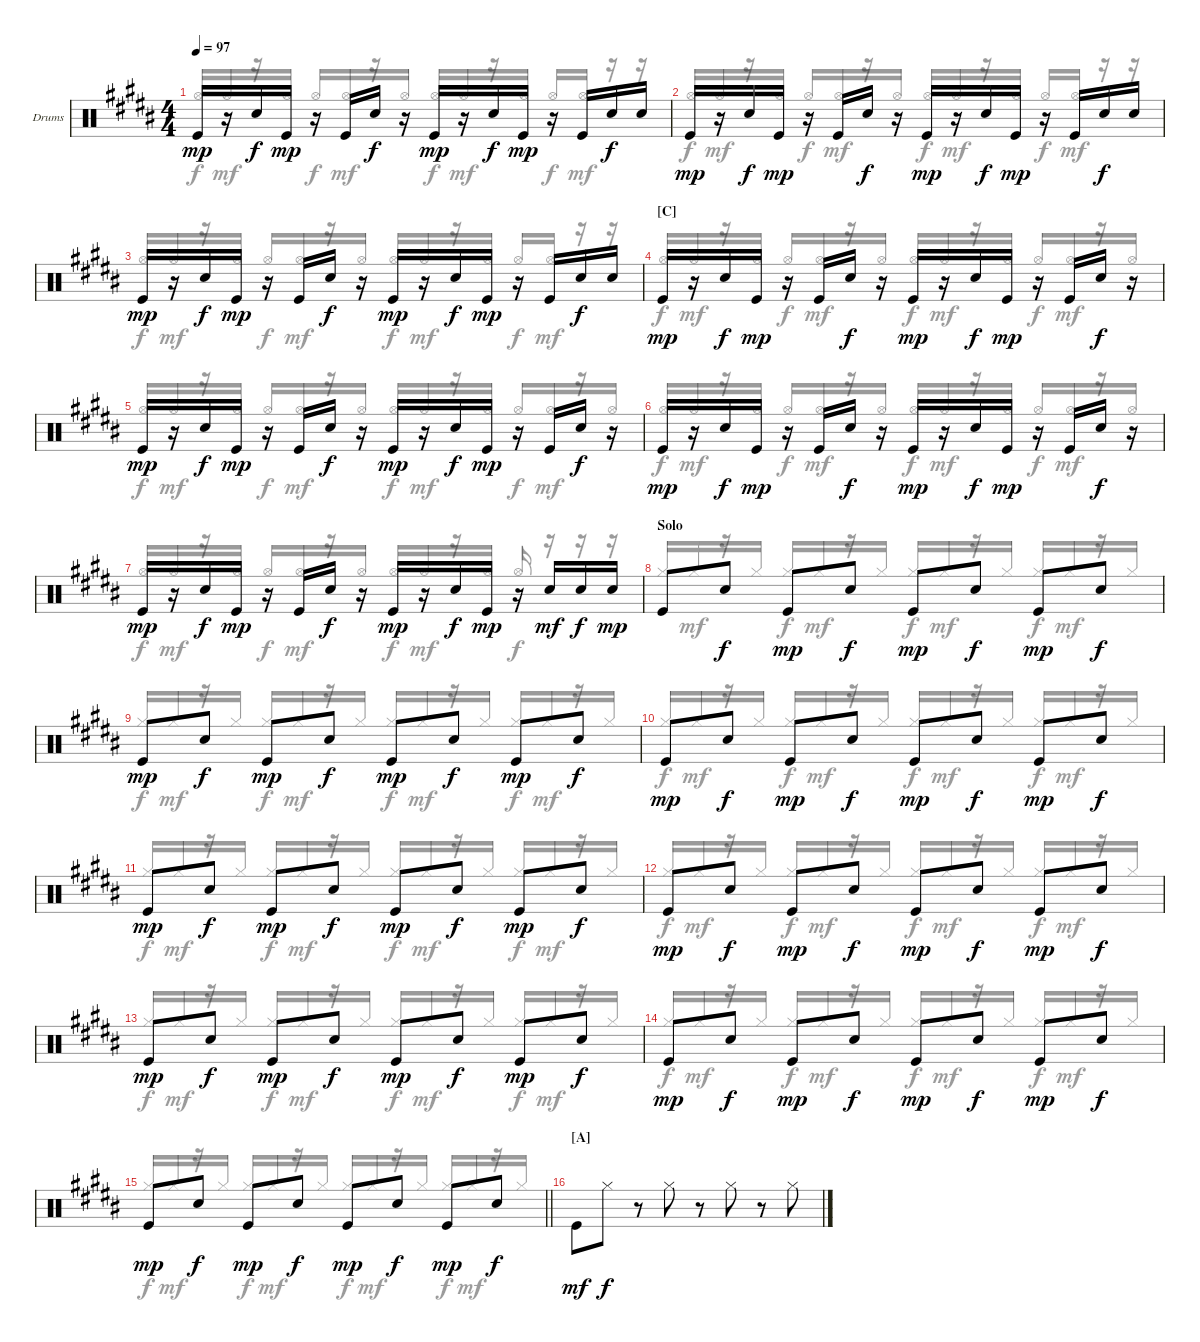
\bracketExtendMode groupsimilarinstruments
\firstSystemTrackNameOrientation horizontal
\otherSystemsTrackNameOrientation horizontal
\track ("Fabrizio Moretti" "Drums") {instrument percussion}
\staff {score}
\articulation defaults
\voice
\ts (4 4)
\tempo 97
\clef neutral
\ks b "Kick (hit)".16{dy mp}
r.16 "Snare (hit) 2".16{dy f} "Kick (hit)".16{dy mp} r.16 "Kick (hit)".16 "Snare (hit) 2".16{dy f} r.16 "Kick (hit)".16{dy mp} r.16 "Snare (hit) 2".16{dy f} "Kick (hit)".16{dy mp} r.16 "Kick (hit)".16 "Snare (hit) 2".16{dy f} "Snare (hit) 2".16 |
"Kick (hit)".16{dy mp} r.16 "Snare (hit) 2".16{dy f} "Kick (hit)".16{dy mp} r.16 "Kick (hit)".16 "Snare (hit) 2".16{dy f} r.16 "Kick (hit)".16{dy mp} r.16 "Snare (hit) 2".16{dy f} "Kick (hit)".16{dy mp} r.16 "Kick (hit)".16 "Snare (hit) 2".16{dy f} "Snare (hit) 2".16 |
"Kick (hit)".16{dy mp} r.16 "Snare (hit) 2".16{dy f} "Kick (hit)".16{dy mp} r.16 "Kick (hit)".16 "Snare (hit) 2".16{dy f} r.16 "Kick (hit)".16{dy mp} r.16 "Snare (hit) 2".16{dy f} "Kick (hit)".16{dy mp} r.16 "Kick (hit)".16 "Snare (hit) 2".16{dy f} "Snare (hit) 2".16 |
\section ("C" "")
"Kick (hit)".16{dy mp} r.16 "Snare (hit) 2".16{dy f} "Kick (hit)".16{dy mp} r.16 "Kick (hit)".16 "Snare (hit) 2".16{dy f} r.16 "Kick (hit)".16{dy mp} r.16 "Snare (hit) 2".16{dy f} "Kick (hit)".16{dy mp} r.16 "Kick (hit)".16 "Snare (hit) 2".16{dy f} r.16 |
"Kick (hit)".16{dy mp} r.16 "Snare (hit) 2".16{dy f} "Kick (hit)".16{dy mp} r.16 "Kick (hit)".16 "Snare (hit) 2".16{dy f} r.16 "Kick (hit)".16{dy mp} r.16 "Snare (hit) 2".16{dy f} "Kick (hit)".16{dy mp} r.16 "Kick (hit)".16 "Snare (hit) 2".16{dy f} r.16 |
"Kick (hit)".16{dy mp} r.16 "Snare (hit) 2".16{dy f} "Kick (hit)".16{dy mp} r.16 "Kick (hit)".16 "Snare (hit) 2".16{dy f} r.16 "Kick (hit)".16{dy mp} r.16 "Snare (hit) 2".16{dy f} "Kick (hit)".16{dy mp} r.16 "Kick (hit)".16 "Snare (hit) 2".16{dy f} r.16 |
"Kick (hit)".16{dy mp} r.16 "Snare (hit) 2".16{dy f} "Kick (hit)".16{dy mp} r.16 "Kick (hit)".16 "Snare (hit) 2".16{dy f} r.16 "Kick (hit)".16{dy mp} r.16 "Snare (hit) 2".16{dy f} "Kick (hit)".16{dy mp} r.16 "Snare (hit) 2".16{dy mf} "Snare (hit) 2".16{dy f} "Snare (hit) 2".16{dy mp} |
\section ("" "Solo")
"Kick (hit)".8 "Snare (hit) 2".8{dy f} "Kick (hit)".8{dy mp} "Snare (hit) 2".8{dy f} "Kick (hit)".8{dy mp} "Snare (hit) 2".8{dy f} "Kick (hit)".8{dy mp} "Snare (hit) 2".8{dy f} |
"Kick (hit)".8{dy mp} "Snare (hit) 2".8{dy f} "Kick (hit)".8{dy mp} "Snare (hit) 2".8{dy f} "Kick (hit)".8{dy mp} "Snare (hit) 2".8{dy f} "Kick (hit)".8{dy mp} "Snare (hit) 2".8{dy f} |
"Kick (hit)".8{dy mp} "Snare (hit) 2".8{dy f} "Kick (hit)".8{dy mp} "Snare (hit) 2".8{dy f} "Kick (hit)".8{dy mp} "Snare (hit) 2".8{dy f} "Kick (hit)".8{dy mp} "Snare (hit) 2".8{dy f} |
"Kick (hit)".8{dy mp} "Snare (hit) 2".8{dy f} "Kick (hit)".8{dy mp} "Snare (hit) 2".8{dy f} "Kick (hit)".8{dy mp} "Snare (hit) 2".8{dy f} "Kick (hit)".8{dy mp} "Snare (hit) 2".8{dy f} |
"Kick (hit)".8{dy mp} "Snare (hit) 2".8{dy f} "Kick (hit)".8{dy mp} "Snare (hit) 2".8{dy f} "Kick (hit)".8{dy mp} "Snare (hit) 2".8{dy f} "Kick (hit)".8{dy mp} "Snare (hit) 2".8{dy f} |
"Kick (hit)".8{dy mp} "Snare (hit) 2".8{dy f} "Kick (hit)".8{dy mp} "Snare (hit) 2".8{dy f} "Kick (hit)".8{dy mp} "Snare (hit) 2".8{dy f} "Kick (hit)".8{dy mp} "Snare (hit) 2".8{dy f} |
"Kick (hit)".8{dy mp} "Snare (hit) 2".8{dy f} "Kick (hit)".8{dy mp} "Snare (hit) 2".8{dy f} "Kick (hit)".8{dy mp} "Snare (hit) 2".8{dy f} "Kick (hit)".8{dy mp} "Snare (hit) 2".8{dy f} |
\barLineRight lightlight "Kick (hit)".8{dy mp} "Snare (hit) 2".8{dy f} "Kick (hit)".8{dy mp} "Snare (hit) 2".8{dy f} "Kick (hit)".8{dy mp} "Snare (hit) 2".8{dy f} "Kick (hit)".8{dy mp} "Snare (hit) 2".8{dy f}
|
\section ("A" "")
"Kick (hit)".8{dy mf} "Hi-Hat (closed)".8{dy f} r.8 "Hi-Hat (closed)".8 r.8 "Hi-Hat (closed)".8 r.8 "Hi-Hat (closed)".8
\voice
\clef neutral
\ottava regular
\simile none
\ks b "Hi-Hat (open)".16{dy f beam invert} "Hi-Hat (open)".16{dy mf}
r.16 "Hi-Hat (open)".16 "Hi-Hat (open)".16{dy f beam invert} "Hi-Hat (open)".16{dy mf} r.16 "Hi-Hat (open)".16 "Hi-Hat (open)".16{dy f beam invert} "Hi-Hat (open)".16{dy mf} r.16 "Hi-Hat (open)".16 "Hi-Hat (open)".16{dy f beam invert} "Hi-Hat (open)".16{dy mf} r.16 r.16 |
"Hi-Hat (open)".16{dy f beam invert} "Hi-Hat (open)".16{dy mf} r.16 "Hi-Hat (open)".16 "Hi-Hat (open)".16{dy f beam invert} "Hi-Hat (open)".16{dy mf} r.16 "Hi-Hat (open)".16 "Hi-Hat (open)".16{dy f beam invert} "Hi-Hat (open)".16{dy mf} r.16 "Hi-Hat (open)".16 "Hi-Hat (open)".16{dy f beam invert} "Hi-Hat (open)".16{dy mf} r.16 r.16 |
"Hi-Hat (open)".16{dy f beam invert} "Hi-Hat (open)".16{dy mf} r.16 "Hi-Hat (open)".16 "Hi-Hat (open)".16{dy f beam invert} "Hi-Hat (open)".16{dy mf} r.16 "Hi-Hat (open)".16 "Hi-Hat (open)".16{dy f beam invert} "Hi-Hat (open)".16{dy mf} r.16 "Hi-Hat (open)".16 "Hi-Hat (open)".16{dy f beam invert} "Hi-Hat (open)".16{dy mf} r.16 r.16 |
"Hi-Hat (open)".16{dy f beam invert} "Hi-Hat (open)".16{dy mf} r.16 "Hi-Hat (open)".16 "Hi-Hat (open)".16{dy f beam invert} "Hi-Hat (open)".16{dy mf} r.16 "Hi-Hat (open)".16 "Hi-Hat (open)".16{dy f beam invert} "Hi-Hat (open)".16{dy mf} r.16 "Hi-Hat (open)".16 "Hi-Hat (open)".16{dy f beam invert} "Hi-Hat (open)".16{dy mf} r.16 "Hi-Hat (open)".16 |
"Hi-Hat (open)".16{dy f beam invert} "Hi-Hat (open)".16{dy mf} r.16 "Hi-Hat (open)".16 "Hi-Hat (open)".16{dy f beam invert} "Hi-Hat (open)".16{dy mf} r.16 "Hi-Hat (open)".16 "Hi-Hat (open)".16{dy f beam invert} "Hi-Hat (open)".16{dy mf} r.16 "Hi-Hat (open)".16 "Hi-Hat (open)".16{dy f beam invert} "Hi-Hat (open)".16{dy mf} r.16 "Hi-Hat (open)".16 |
"Hi-Hat (open)".16{dy f beam invert} "Hi-Hat (open)".16{dy mf} r.16 "Hi-Hat (open)".16 "Hi-Hat (open)".16{dy f beam invert} "Hi-Hat (open)".16{dy mf} r.16 "Hi-Hat (open)".16 "Hi-Hat (open)".16{dy f beam invert} "Hi-Hat (open)".16{dy mf} r.16 "Hi-Hat (open)".16 "Hi-Hat (open)".16{dy f beam invert} "Hi-Hat (open)".16{dy mf} r.16 "Hi-Hat (open)".16 |
"Hi-Hat (open)".16{dy f beam invert} "Hi-Hat (open)".16{dy mf} r.16 "Hi-Hat (open)".16 "Hi-Hat (open)".16{dy f beam invert} "Hi-Hat (open)".16{dy mf} r.16 "Hi-Hat (open)".16 "Hi-Hat (open)".16{dy f beam invert} "Hi-Hat (open)".16{dy mf} r.16 "Hi-Hat (open)".16 "Hi-Hat (open)".16{dy f beam invert} r.16 r.16 r.16 |
"Hi-Hat (closed)".16{beam invert} "Hi-Hat (closed)".16{dy mf} r.16 "Hi-Hat (closed)".16 "Hi-Hat (closed)".16{dy f beam invert} "Hi-Hat (closed)".16{dy mf} r.16 "Hi-Hat (closed)".16 "Hi-Hat (closed)".16{dy f beam invert} "Hi-Hat (closed)".16{dy mf} r.16 "Hi-Hat (closed)".16 "Hi-Hat (closed)".16{dy f beam invert} "Hi-Hat (closed)".16{dy mf} r.16 "Hi-Hat (closed)".16 |
"Hi-Hat (closed)".16{dy f beam invert} "Hi-Hat (closed)".16{dy mf} r.16 "Hi-Hat (closed)".16 "Hi-Hat (closed)".16{dy f beam invert} "Hi-Hat (closed)".16{dy mf} r.16 "Hi-Hat (closed)".16 "Hi-Hat (closed)".16{dy f beam invert} "Hi-Hat (closed)".16{dy mf} r.16 "Hi-Hat (closed)".16 "Hi-Hat (closed)".16{dy f beam invert} "Hi-Hat (closed)".16{dy mf} r.16 "Hi-Hat (closed)".16 |
"Hi-Hat (closed)".16{dy f beam invert} "Hi-Hat (closed)".16{dy mf} r.16 "Hi-Hat (closed)".16 "Hi-Hat (closed)".16{dy f beam invert} "Hi-Hat (closed)".16{dy mf} r.16 "Hi-Hat (closed)".16 "Hi-Hat (closed)".16{dy f beam invert} "Hi-Hat (closed)".16{dy mf} r.16 "Hi-Hat (closed)".16 "Hi-Hat (closed)".16{dy f beam invert} "Hi-Hat (closed)".16{dy mf} r.16 "Hi-Hat (closed)".16 |
"Hi-Hat (closed)".16{dy f beam invert} "Hi-Hat (closed)".16{dy mf} r.16 "Hi-Hat (closed)".16 "Hi-Hat (closed)".16{dy f beam invert} "Hi-Hat (closed)".16{dy mf} r.16 "Hi-Hat (closed)".16 "Hi-Hat (closed)".16{dy f beam invert} "Hi-Hat (closed)".16{dy mf} r.16 "Hi-Hat (closed)".16 "Hi-Hat (closed)".16{dy f beam invert} "Hi-Hat (closed)".16{dy mf} r.16 "Hi-Hat (closed)".16 |
"Hi-Hat (closed)".16{dy f beam invert} "Hi-Hat (closed)".16{dy mf} r.16 "Hi-Hat (closed)".16 "Hi-Hat (closed)".16{dy f beam invert} "Hi-Hat (closed)".16{dy mf} r.16 "Hi-Hat (closed)".16 "Hi-Hat (closed)".16{dy f beam invert} "Hi-Hat (closed)".16{dy mf} r.16 "Hi-Hat (closed)".16 "Hi-Hat (closed)".16{dy f beam invert} "Hi-Hat (closed)".16{dy mf} r.16 "Hi-Hat (closed)".16 |
"Hi-Hat (closed)".16{dy f beam invert} "Hi-Hat (closed)".16{dy mf} r.16 "Hi-Hat (closed)".16 "Hi-Hat (closed)".16{dy f beam invert} "Hi-Hat (closed)".16{dy mf} r.16 "Hi-Hat (closed)".16 "Hi-Hat (closed)".16{dy f beam invert} "Hi-Hat (closed)".16{dy mf} r.16 "Hi-Hat (closed)".16 "Hi-Hat (closed)".16{dy f beam invert} "Hi-Hat (closed)".16{dy mf} r.16 "Hi-Hat (closed)".16 |
"Hi-Hat (closed)".16{dy f beam invert} "Hi-Hat (closed)".16{dy mf} r.16 "Hi-Hat (closed)".16 "Hi-Hat (closed)".16{dy f beam invert} "Hi-Hat (closed)".16{dy mf} r.16 "Hi-Hat (closed)".16 "Hi-Hat (closed)".16{dy f beam invert} "Hi-Hat (closed)".16{dy mf} r.16 "Hi-Hat (closed)".16 "Hi-Hat (closed)".16{dy f beam invert} "Hi-Hat (closed)".16{dy mf} r.16 "Hi-Hat (closed)".16 |
\barLineRight lightlight "Hi-Hat (closed)".16{dy f beam invert} "Hi-Hat (closed)".16{dy mf}
r.16 "Hi-Hat (closed)".16 "Hi-Hat (closed)".16{dy f beam invert} "Hi-Hat (closed)".16{dy mf} r.16 "Hi-Hat (closed)".16 "Hi-Hat (closed)".16{dy f beam invert} "Hi-Hat (closed)".16{dy mf} r.16 "Hi-Hat (closed)".16 "Hi-Hat (closed)".16{dy f beam invert} "Hi-Hat (closed)".16{dy mf} r.16 "Hi-Hat (closed)".16 |
